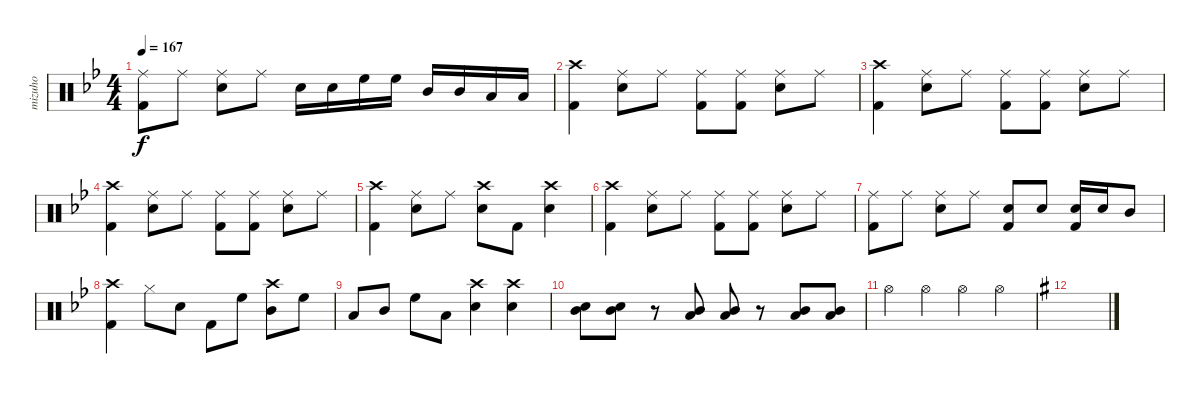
\track ("mizuho" "mizuho") {instrument percussion}
\staff {score}
\articulation defaults
\ts (4 4)
\tempo 167
\clef neutral
\ks gminor
("Ride (middle)" "Kick (hit) 2").8{dy f} "Ride (middle)".8 ("Ride (middle)" "Electric Snare (hit)").8 "Ride (middle)".8 "Electric Snare (hit)".16 "Electric Snare (hit)".16 "High Floor Tom (hit)".16 "High Floor Tom (hit)".16 "Mid Tom (hit)".16 "Mid Tom (hit)".16 "Low Tom (hit)".16 "Low Tom (hit)".16 |
("Crash high (hit)" "Kick (hit) 2").4 ("Ride (middle)" "Electric Snare (hit)").8 "Ride (middle)".8 ("Ride (middle)" "Kick (hit) 2").8 ("Ride (middle)" "Kick (hit) 2").8 ("Ride (middle)" "Electric Snare (hit)").8 "Ride (middle)".8 |
("Crash high (hit)" "Kick (hit) 2").4 ("Ride (middle)" "Electric Snare (hit)").8 "Ride (middle)".8 ("Ride (middle)" "Kick (hit) 2").8 ("Ride (middle)" "Kick (hit) 2").8 ("Ride (middle)" "Electric Snare (hit)").8 "Ride (middle)".8 |
("Crash high (hit)" "Kick (hit) 2").4 ("Ride (middle)" "Electric Snare (hit)").8 "Ride (middle)".8 ("Ride (middle)" "Kick (hit) 2").8 ("Ride (middle)" "Kick (hit) 2").8 ("Ride (middle)" "Electric Snare (hit)").8 "Ride (middle)".8 |
("Crash high (hit)" "Kick (hit) 2").4 ("Ride (middle)" "Electric Snare (hit)").8 "Ride (middle)".8 ("Crash high (hit)" "Electric Snare (hit)").8 "Kick (hit) 2".8 ("Crash high (hit)" "Electric Snare (hit)").4 |
("Crash high (hit)" "Kick (hit) 2").4 ("Ride (middle)" "Electric Snare (hit)").8 "Ride (middle)".8 ("Ride (middle)" "Kick (hit) 2").8 ("Ride (middle)" "Kick (hit) 2").8 ("Ride (middle)" "Electric Snare (hit)").8 "Ride (middle)".8 |
("Ride (middle)" "Kick (hit) 2").8 "Ride (middle)".8 ("Ride (middle)" "Electric Snare (hit)").8 "Ride (middle)".8 ("Electric Snare (hit)" "Kick (hit) 2").8 "Electric Snare (hit)".8 ("Electric Snare (hit)" "Kick (hit) 2").16 "Snare (hit) 2".16 "Mid Tom (hit)".8 |
("Crash high (hit)" "Kick (hit) 2").4 "Hi-Hat (closed)".8 "Electric Snare (hit)".8 "Kick (hit) 2".8 "High Floor Tom (hit)".8 ("Crash high (hit)" "Mid Tom (hit)").8 "High Floor Tom (hit)".8 |
"Low Floor Tom (hit)".8 "Mid Tom (hit)".8 "High Floor Tom (hit)".8 "Low Floor Tom (hit)".8 ("Crash high (hit)" "Snare (hit) 2").4 ("Crash high (hit)" "Snare (hit) 2").4 |
("Mid Tom (hit)" "Snare (hit) 2").8 ("Mid Tom (hit)" "Snare (hit) 2").8 r.8 ("Mid Tom (hit)" "Low Floor Tom (hit)").8 ("Mid Tom (hit)" "Low Floor Tom (hit)").8 r.8 ("Mid Tom (hit)" "Low Floor Tom (hit)").8 ("Mid Tom (hit)" "Low Floor Tom (hit)").8 |
"Hi-Hat (open)".4 "Hi-Hat (open)".4 "Hi-Hat (open)".4 "Hi-Hat (open)".4 |
\ks eminor
